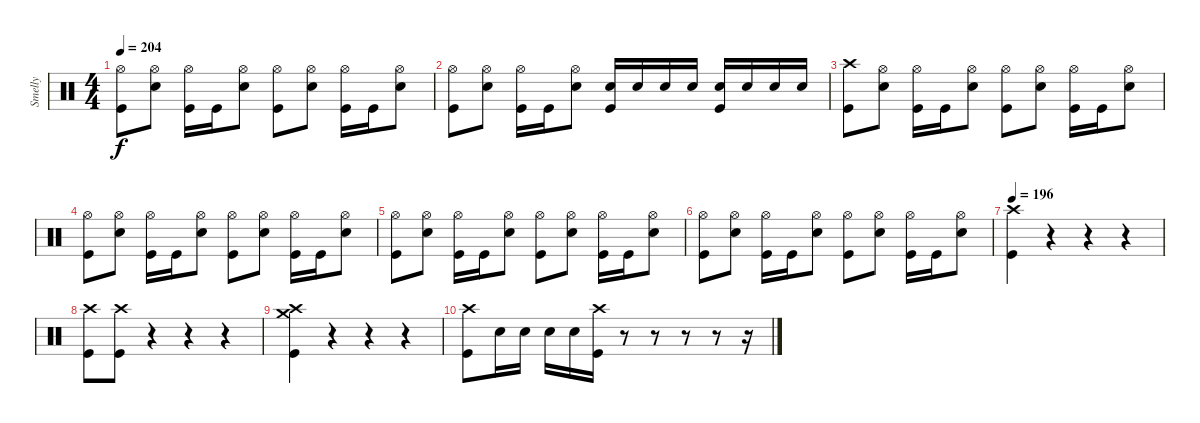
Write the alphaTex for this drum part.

\track ("Smelly" "Smelly") {instrument percussion}
\staff {score}
\articulation defaults
\ts (4 4)
\tempo 204
\clef neutral
\ks c
("Hi-Hat (open)" "Kick (hit)").8{dy f} ("Hi-Hat (open)" "Snare (hit) 2").8 ("Hi-Hat (open)" "Kick (hit)").16 "Kick (hit)".16 ("Hi-Hat (open)" "Snare (hit) 2").8 ("Hi-Hat (open)" "Kick (hit)").8 ("Hi-Hat (open)" "Snare (hit) 2").8 ("Hi-Hat (open)" "Kick (hit)").16 "Kick (hit)".16 ("Hi-Hat (open)" "Snare (hit) 2").8 |
("Hi-Hat (open)" "Kick (hit)").8 ("Hi-Hat (open)" "Snare (hit) 2").8 ("Hi-Hat (open)" "Kick (hit)").16 "Kick (hit)".16 ("Hi-Hat (open)" "Snare (hit) 2").8 ("Snare (hit) 2" "Kick (hit)").16 "Snare (hit) 2".16 "Snare (hit) 2".16 "Snare (hit) 2".16 ("Snare (hit) 2" "Kick (hit)").16 "Snare (hit) 2".16 "Snare (hit) 2".16 "Snare (hit) 2".16 |
("Crash high (hit)" "Kick (hit)").8 ("Hi-Hat (open)" "Snare (hit) 2").8 ("Hi-Hat (open)" "Kick (hit)").16 "Kick (hit)".16 ("Hi-Hat (open)" "Snare (hit) 2").8 ("Hi-Hat (open)" "Kick (hit)").8 ("Hi-Hat (open)" "Snare (hit) 2").8 ("Hi-Hat (open)" "Kick (hit)").16 "Kick (hit)".16 ("Hi-Hat (open)" "Snare (hit) 2").8 |
("Hi-Hat (open)" "Kick (hit)").8 ("Hi-Hat (open)" "Snare (hit) 2").8 ("Hi-Hat (open)" "Kick (hit)").16 "Kick (hit)".16 ("Hi-Hat (open)" "Snare (hit) 2").8 ("Hi-Hat (open)" "Kick (hit)").8 ("Hi-Hat (open)" "Snare (hit) 2").8 ("Hi-Hat (open)" "Kick (hit)").16 "Kick (hit)".16 ("Hi-Hat (open)" "Snare (hit) 2").8 |
("Hi-Hat (open)" "Kick (hit)").8 ("Hi-Hat (open)" "Snare (hit) 2").8 ("Hi-Hat (open)" "Kick (hit)").16 "Kick (hit)".16 ("Hi-Hat (open)" "Snare (hit) 2").8 ("Hi-Hat (open)" "Kick (hit)").8 ("Hi-Hat (open)" "Snare (hit) 2").8 ("Hi-Hat (open)" "Kick (hit)").16 "Kick (hit)".16 ("Hi-Hat (open)" "Snare (hit) 2").8 |
("Hi-Hat (open)" "Kick (hit)").8 ("Hi-Hat (open)" "Snare (hit) 2").8 ("Hi-Hat (open)" "Kick (hit)").16 "Kick (hit)".16 ("Hi-Hat (open)" "Snare (hit) 2").8 ("Hi-Hat (open)" "Kick (hit)").8 ("Hi-Hat (open)" "Snare (hit) 2").8 ("Hi-Hat (open)" "Kick (hit)").16 "Kick (hit)".16 ("Hi-Hat (open)" "Snare (hit) 2").8 |
\tempo 196
("Crash high (hit)" "Kick (hit)").4 r.4 r.4 r.4 |
("Crash high (hit)" "Kick (hit)").8 ("Crash high (hit)" "Kick (hit)").8 r.4 r.4 r.4 |
("Crash high (hit)" "Crash medium (hit)" "Kick (hit)").4 r.4 r.4 r.4 |
("Crash high (hit)" "Kick (hit)").8 "Snare (hit) 2".16 "Snare (hit) 2".16 "Snare (hit) 2".16 "Snare (hit) 2".16 ("Crash high (hit)" "Kick (hit)").16 r.8 r.8 r.8 r.8 r.16
